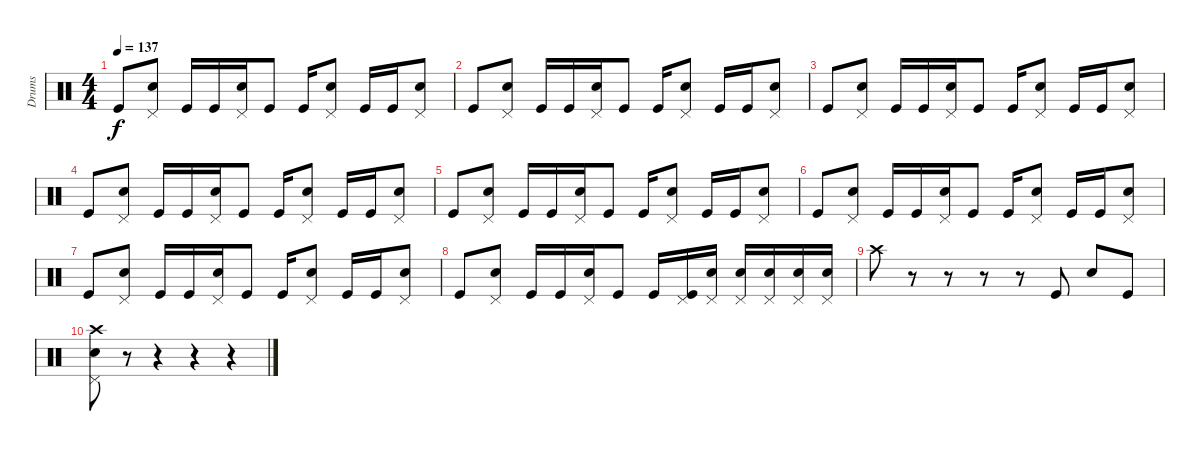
\track ("Drums" "Drums") {instrument percussion}
\staff {score}
\articulation defaults
\ts (4 4)
\tempo 137
\clef neutral
\ks c "Kick (hit)".8{dy f}
("Electric Snare (hit)" "Pedal Hi-Hat (hit)").8 "Kick (hit)".16 "Kick (hit)".16 ("Electric Snare (hit)" "Pedal Hi-Hat (hit)").16 "Kick (hit)".8 "Kick (hit)".16 ("Electric Snare (hit)" "Pedal Hi-Hat (hit)").8 "Kick (hit)".16 "Kick (hit)".16 ("Electric Snare (hit)" "Pedal Hi-Hat (hit)").8 |
"Kick (hit)".8 ("Electric Snare (hit)" "Pedal Hi-Hat (hit)").8 "Kick (hit)".16 "Kick (hit)".16 ("Electric Snare (hit)" "Pedal Hi-Hat (hit)").16 "Kick (hit)".8 "Kick (hit)".16 ("Electric Snare (hit)" "Pedal Hi-Hat (hit)").8 "Kick (hit)".16 "Kick (hit)".16 ("Electric Snare (hit)" "Pedal Hi-Hat (hit)").8 |
"Kick (hit)".8 ("Electric Snare (hit)" "Pedal Hi-Hat (hit)").8 "Kick (hit)".16 "Kick (hit)".16 ("Electric Snare (hit)" "Pedal Hi-Hat (hit)").16 "Kick (hit)".8 "Kick (hit)".16 ("Electric Snare (hit)" "Pedal Hi-Hat (hit)").8 "Kick (hit)".16 "Kick (hit)".16 ("Electric Snare (hit)" "Pedal Hi-Hat (hit)").8 |
"Kick (hit)".8 ("Electric Snare (hit)" "Pedal Hi-Hat (hit)").8 "Kick (hit)".16 "Kick (hit)".16 ("Electric Snare (hit)" "Pedal Hi-Hat (hit)").16 "Kick (hit)".8 "Kick (hit)".16 ("Electric Snare (hit)" "Pedal Hi-Hat (hit)").8 "Kick (hit)".16 "Kick (hit)".16 ("Electric Snare (hit)" "Pedal Hi-Hat (hit)").8 |
"Kick (hit)".8 ("Electric Snare (hit)" "Pedal Hi-Hat (hit)").8 "Kick (hit)".16 "Kick (hit)".16 ("Electric Snare (hit)" "Pedal Hi-Hat (hit)").16 "Kick (hit)".8 "Kick (hit)".16 ("Electric Snare (hit)" "Pedal Hi-Hat (hit)").8 "Kick (hit)".16 "Kick (hit)".16 ("Electric Snare (hit)" "Pedal Hi-Hat (hit)").8 |
"Kick (hit)".8 ("Electric Snare (hit)" "Pedal Hi-Hat (hit)").8 "Kick (hit)".16 "Kick (hit)".16 ("Electric Snare (hit)" "Pedal Hi-Hat (hit)").16 "Kick (hit)".8 "Kick (hit)".16 ("Electric Snare (hit)" "Pedal Hi-Hat (hit)").8 "Kick (hit)".16 "Kick (hit)".16 ("Electric Snare (hit)" "Pedal Hi-Hat (hit)").8 |
"Kick (hit)".8 ("Electric Snare (hit)" "Pedal Hi-Hat (hit)").8 "Kick (hit)".16 "Kick (hit)".16 ("Electric Snare (hit)" "Pedal Hi-Hat (hit)").16 "Kick (hit)".8 "Kick (hit)".16 ("Electric Snare (hit)" "Pedal Hi-Hat (hit)").8 "Kick (hit)".16 "Kick (hit)".16 ("Electric Snare (hit)" "Pedal Hi-Hat (hit)").8 |
"Kick (hit)".8 ("Electric Snare (hit)" "Pedal Hi-Hat (hit)").8 "Kick (hit)".16 "Kick (hit)".16 ("Electric Snare (hit)" "Pedal Hi-Hat (hit)").16 "Kick (hit)".8 "Kick (hit)".16 ("Kick (hit)" "Pedal Hi-Hat (hit)").16 ("Electric Snare (hit)" "Pedal Hi-Hat (hit)").16 ("Electric Snare (hit)" "Pedal Hi-Hat (hit)").16 ("Electric Snare (hit)" "Pedal Hi-Hat (hit)").16 ("Electric Snare (hit)" "Pedal Hi-Hat (hit)").16 ("Electric Snare (hit)" "Pedal Hi-Hat (hit)").16 |
"Crash high (hit)".8 r.8 r.8 r.8 r.8 "Kick (hit)".8 "Electric Snare (hit)".8 "Kick (hit)".8 |
("Electric Snare (hit)" "Crash high (hit)" "Pedal Hi-Hat (hit)").8 r.8 r.4 r.4 r.4
